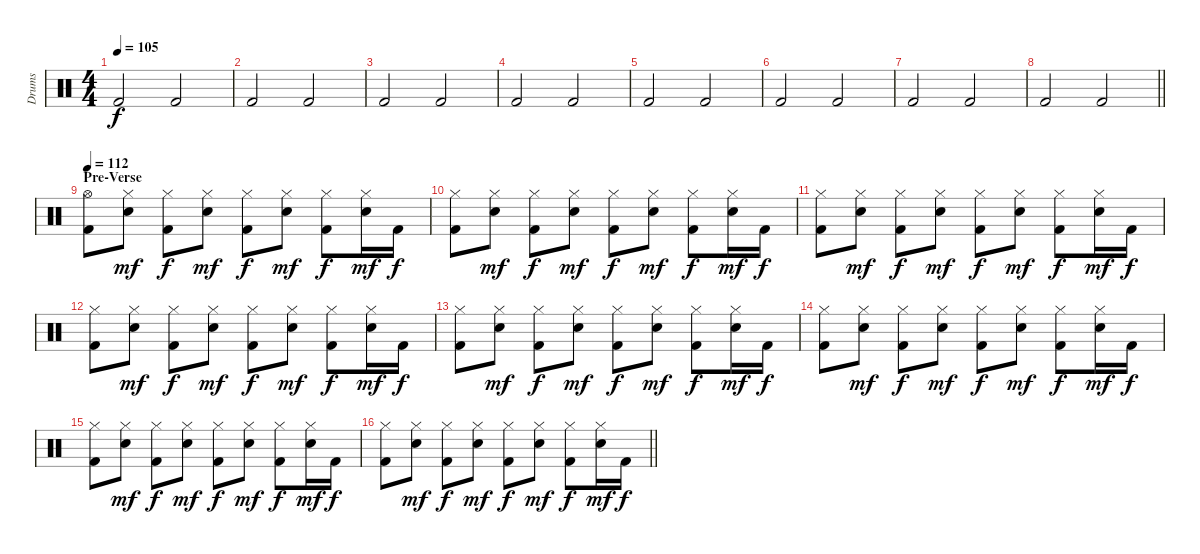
\track ("Drums" "Drums") {instrument percussion}
\staff {score}
\articulation defaults
\ts (4 4)
\tempo 105
\clef neutral
\ks c "Kick (hit) 2".2{dy f} "Kick (hit) 2".2
|
"Kick (hit) 2".2 "Kick (hit) 2".2 |
"Kick (hit) 2".2 "Kick (hit) 2".2 |
"Kick (hit) 2".2 "Kick (hit) 2".2 |
"Kick (hit) 2".2 "Kick (hit) 2".2 |
"Kick (hit) 2".2 "Kick (hit) 2".2 |
"Kick (hit) 2".2 "Kick (hit) 2".2 |
\barLineRight lightlight "Kick (hit) 2".2 "Kick (hit) 2".2
|
\section ("" "Pre-Verse")
\tempo 112
("Hi-Hat (open)" "Kick (hit) 2").8 ("Hi-Hat (closed)" "Snare (hit) 2").8{dy mf} ("Hi-Hat (closed)" "Kick (hit) 2").8{dy f} ("Hi-Hat (closed)" "Snare (hit) 2").8{dy mf} ("Hi-Hat (closed)" "Kick (hit) 2").8{dy f} ("Hi-Hat (closed)" "Snare (hit) 2").8{dy mf} ("Hi-Hat (closed)" "Kick (hit) 2").8{dy f} ("Hi-Hat (closed)" "Snare (hit) 2").16{dy mf} "Kick (hit) 2".16{dy f} |
("Hi-Hat (closed)" "Kick (hit) 2").8 ("Hi-Hat (closed)" "Snare (hit) 2").8{dy mf} ("Hi-Hat (closed)" "Kick (hit) 2").8{dy f} ("Hi-Hat (closed)" "Snare (hit) 2").8{dy mf} ("Hi-Hat (closed)" "Kick (hit) 2").8{dy f} ("Hi-Hat (closed)" "Snare (hit) 2").8{dy mf} ("Hi-Hat (closed)" "Kick (hit) 2").8{dy f} ("Hi-Hat (closed)" "Snare (hit) 2").16{dy mf} "Kick (hit) 2".16{dy f} |
("Hi-Hat (closed)" "Kick (hit) 2").8 ("Hi-Hat (closed)" "Snare (hit) 2").8{dy mf} ("Hi-Hat (closed)" "Kick (hit) 2").8{dy f} ("Hi-Hat (closed)" "Snare (hit) 2").8{dy mf} ("Hi-Hat (closed)" "Kick (hit) 2").8{dy f} ("Hi-Hat (closed)" "Snare (hit) 2").8{dy mf} ("Hi-Hat (closed)" "Kick (hit) 2").8{dy f} ("Hi-Hat (closed)" "Snare (hit) 2").16{dy mf} "Kick (hit) 2".16{dy f} |
("Hi-Hat (closed)" "Kick (hit) 2").8 ("Hi-Hat (closed)" "Snare (hit) 2").8{dy mf} ("Hi-Hat (closed)" "Kick (hit) 2").8{dy f} ("Hi-Hat (closed)" "Snare (hit) 2").8{dy mf} ("Hi-Hat (closed)" "Kick (hit) 2").8{dy f} ("Hi-Hat (closed)" "Snare (hit) 2").8{dy mf} ("Hi-Hat (closed)" "Kick (hit) 2").8{dy f} ("Hi-Hat (closed)" "Snare (hit) 2").16{dy mf} "Kick (hit) 2".16{dy f} |
("Hi-Hat (closed)" "Kick (hit) 2").8 ("Hi-Hat (closed)" "Snare (hit) 2").8{dy mf} ("Hi-Hat (closed)" "Kick (hit) 2").8{dy f} ("Hi-Hat (closed)" "Snare (hit) 2").8{dy mf} ("Hi-Hat (closed)" "Kick (hit) 2").8{dy f} ("Hi-Hat (closed)" "Snare (hit) 2").8{dy mf} ("Hi-Hat (closed)" "Kick (hit) 2").8{dy f} ("Hi-Hat (closed)" "Snare (hit) 2").16{dy mf} "Kick (hit) 2".16{dy f} |
("Hi-Hat (closed)" "Kick (hit) 2").8 ("Hi-Hat (closed)" "Snare (hit) 2").8{dy mf} ("Hi-Hat (closed)" "Kick (hit) 2").8{dy f} ("Hi-Hat (closed)" "Snare (hit) 2").8{dy mf} ("Hi-Hat (closed)" "Kick (hit) 2").8{dy f} ("Hi-Hat (closed)" "Snare (hit) 2").8{dy mf} ("Hi-Hat (closed)" "Kick (hit) 2").8{dy f} ("Hi-Hat (closed)" "Snare (hit) 2").16{dy mf} "Kick (hit) 2".16{dy f} |
("Hi-Hat (closed)" "Kick (hit) 2").8 ("Hi-Hat (closed)" "Snare (hit) 2").8{dy mf} ("Hi-Hat (closed)" "Kick (hit) 2").8{dy f} ("Hi-Hat (closed)" "Snare (hit) 2").8{dy mf} ("Hi-Hat (closed)" "Kick (hit) 2").8{dy f} ("Hi-Hat (closed)" "Snare (hit) 2").8{dy mf} ("Hi-Hat (closed)" "Kick (hit) 2").8{dy f} ("Hi-Hat (closed)" "Snare (hit) 2").16{dy mf} "Kick (hit) 2".16{dy f} |
\barLineRight lightlight
("Hi-Hat (closed)" "Kick (hit) 2").8 ("Hi-Hat (closed)" "Snare (hit) 2").8{dy mf} ("Hi-Hat (closed)" "Kick (hit) 2").8{dy f} ("Hi-Hat (closed)" "Snare (hit) 2").8{dy mf} ("Hi-Hat (closed)" "Kick (hit) 2").8{dy f} ("Hi-Hat (closed)" "Snare (hit) 2").8{dy mf} ("Hi-Hat (closed)" "Kick (hit) 2").8{dy f} ("Hi-Hat (closed)" "Snare (hit) 2").16{dy mf} "Kick (hit) 2".16{dy f}
